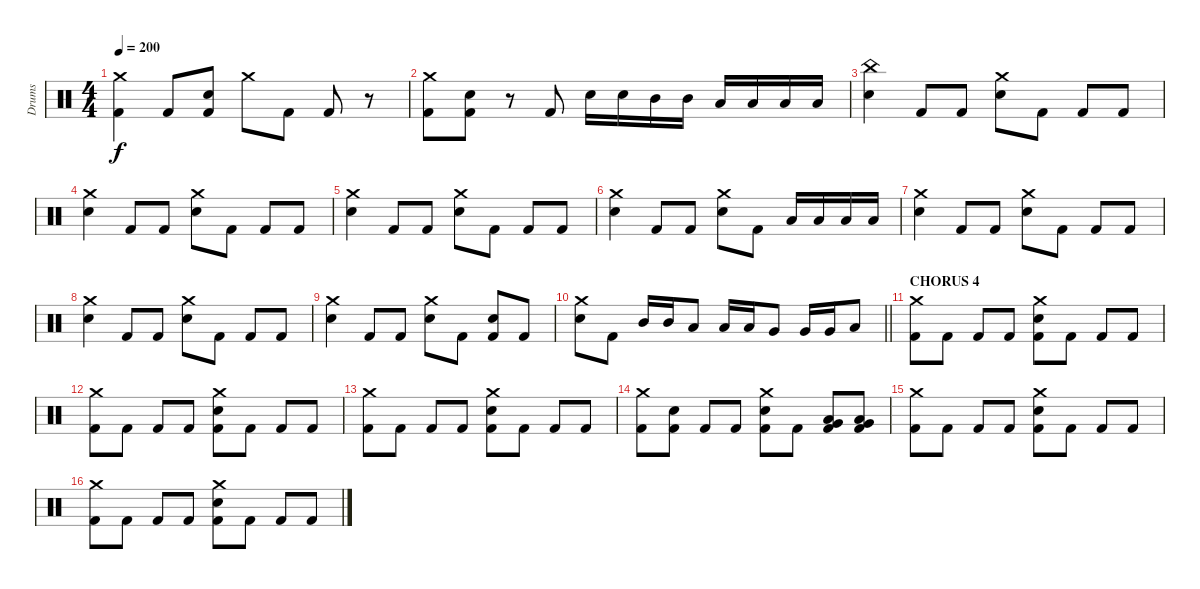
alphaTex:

\track ("Drums" "Drums") {instrument percussion}
\staff {score}
\articulation defaults
\ts (4 4)
\tempo 200
\clef neutral
\ks c
("Crash medium (hit)" "Kick (hit) 2").4{dy f} "Kick (hit) 2".8 ("Electric Snare (hit)" "Kick (hit) 2").8 "Crash medium (hit)".8 "Kick (hit) 2".8 "Kick (hit) 2".8 r.8 |
("Crash medium (hit)" "Kick (hit) 2").8 ("Electric Snare (hit)" "Kick (hit) 2").8 r.8 "Kick (hit) 2".8 "Electric Snare (hit)".16 "Electric Snare (hit)".16 "Mid Tom (hit)".16 "Mid Tom (hit)".16 "Low Tom (hit)".16 "Low Tom (hit)".16 "Low Floor Tom (hit)".16 "Low Floor Tom (hit)".16 |
("China (hit)" "Electric Snare (hit)").4 "Kick (hit) 2".8 "Kick (hit) 2".8 ("Crash medium (hit)" "Electric Snare (hit)").8 "Kick (hit) 2".8 "Kick (hit) 2".8 "Kick (hit) 2".8 |
("Crash medium (hit)" "Electric Snare (hit)").4 "Kick (hit) 2".8 "Kick (hit) 2".8 ("Crash medium (hit)" "Electric Snare (hit)").8 "Kick (hit) 2".8 "Kick (hit) 2".8 "Kick (hit) 2".8 |
("Crash medium (hit)" "Electric Snare (hit)").4 "Kick (hit) 2".8 "Kick (hit) 2".8 ("Crash medium (hit)" "Electric Snare (hit)").8 "Kick (hit) 2".8 "Kick (hit) 2".8 "Kick (hit) 2".8 |
("Crash medium (hit)" "Electric Snare (hit)").4 "Kick (hit) 2".8 "Kick (hit) 2".8 ("Crash medium (hit)" "Electric Snare (hit)").8 "Kick (hit) 2".8 "Low Tom (hit)".16 "Low Tom (hit)".16 "Low Floor Tom (hit)".16 "Low Floor Tom (hit)".16 |
("Crash medium (hit)" "Electric Snare (hit)").4 "Kick (hit) 2".8 "Kick (hit) 2".8 ("Crash medium (hit)" "Electric Snare (hit)").8 "Kick (hit) 2".8 "Kick (hit) 2".8 "Kick (hit) 2".8 |
("Crash medium (hit)" "Electric Snare (hit)").4 "Kick (hit) 2".8 "Kick (hit) 2".8 ("Crash medium (hit)" "Electric Snare (hit)").8 "Kick (hit) 2".8 "Kick (hit) 2".8 "Kick (hit) 2".8 |
("Crash medium (hit)" "Electric Snare (hit)").4 "Kick (hit) 2".8 "Kick (hit) 2".8 ("Crash medium (hit)" "Electric Snare (hit)").8 "Kick (hit) 2".8 ("Electric Snare (hit)" "Kick (hit) 2").8 "Kick (hit) 2".8 |
\barLineRight lightlight
("Crash medium (hit)" "Electric Snare (hit)").8 "Kick (hit) 2".8 "Mid Tom (hit)".16 "Mid Tom (hit)".16 "Low Tom (hit)".8 "Low Tom (hit)".16 "Low Tom (hit)".16 "Very Low Tom (hit)".8 "Very Low Tom (hit)".16 "Very Low Tom (hit)".16 "Low Floor Tom (hit)".8 |
\section ("" "CHORUS 4")
("Crash medium (hit)" "Kick (hit) 2").8 "Kick (hit) 2".8 "Kick (hit) 2".8 "Kick (hit) 2".8 ("Crash medium (hit)" "Electric Snare (hit)" "Kick (hit) 2").8 "Kick (hit) 2".8 "Kick (hit) 2".8 "Kick (hit) 2".8 |
("Crash medium (hit)" "Kick (hit) 2").8 "Kick (hit) 2".8 "Kick (hit) 2".8 "Kick (hit) 2".8 ("Crash medium (hit)" "Electric Snare (hit)" "Kick (hit) 2").8 "Kick (hit) 2".8 "Kick (hit) 2".8 "Kick (hit) 2".8 |
("Crash medium (hit)" "Kick (hit) 2").8 "Kick (hit) 2".8 "Kick (hit) 2".8 "Kick (hit) 2".8 ("Crash medium (hit)" "Electric Snare (hit)" "Kick (hit) 2").8 "Kick (hit) 2".8 "Kick (hit) 2".8 "Kick (hit) 2".8 |
("Crash medium (hit)" "Kick (hit) 2").8 ("Electric Snare (hit)" "Kick (hit) 2").8 "Kick (hit) 2".8 "Kick (hit) 2".8 ("Crash medium (hit)" "Electric Snare (hit)" "Kick (hit) 2").8 "Kick (hit) 2".8 ("Low Tom (hit)" "Very Low Tom (hit)" "Kick (hit) 2").8 ("Very Low Tom (hit)" "Low Floor Tom (hit)" "Kick (hit) 2").8 |
("Crash medium (hit)" "Kick (hit) 2").8 "Kick (hit) 2".8 "Kick (hit) 2".8 "Kick (hit) 2".8 ("Crash medium (hit)" "Electric Snare (hit)" "Kick (hit) 2").8 "Kick (hit) 2".8 "Kick (hit) 2".8 "Kick (hit) 2".8 |
("Crash medium (hit)" "Kick (hit) 2").8 "Kick (hit) 2".8 "Kick (hit) 2".8 "Kick (hit) 2".8 ("Crash medium (hit)" "Electric Snare (hit)" "Kick (hit) 2").8 "Kick (hit) 2".8 "Kick (hit) 2".8 "Kick (hit) 2".8
